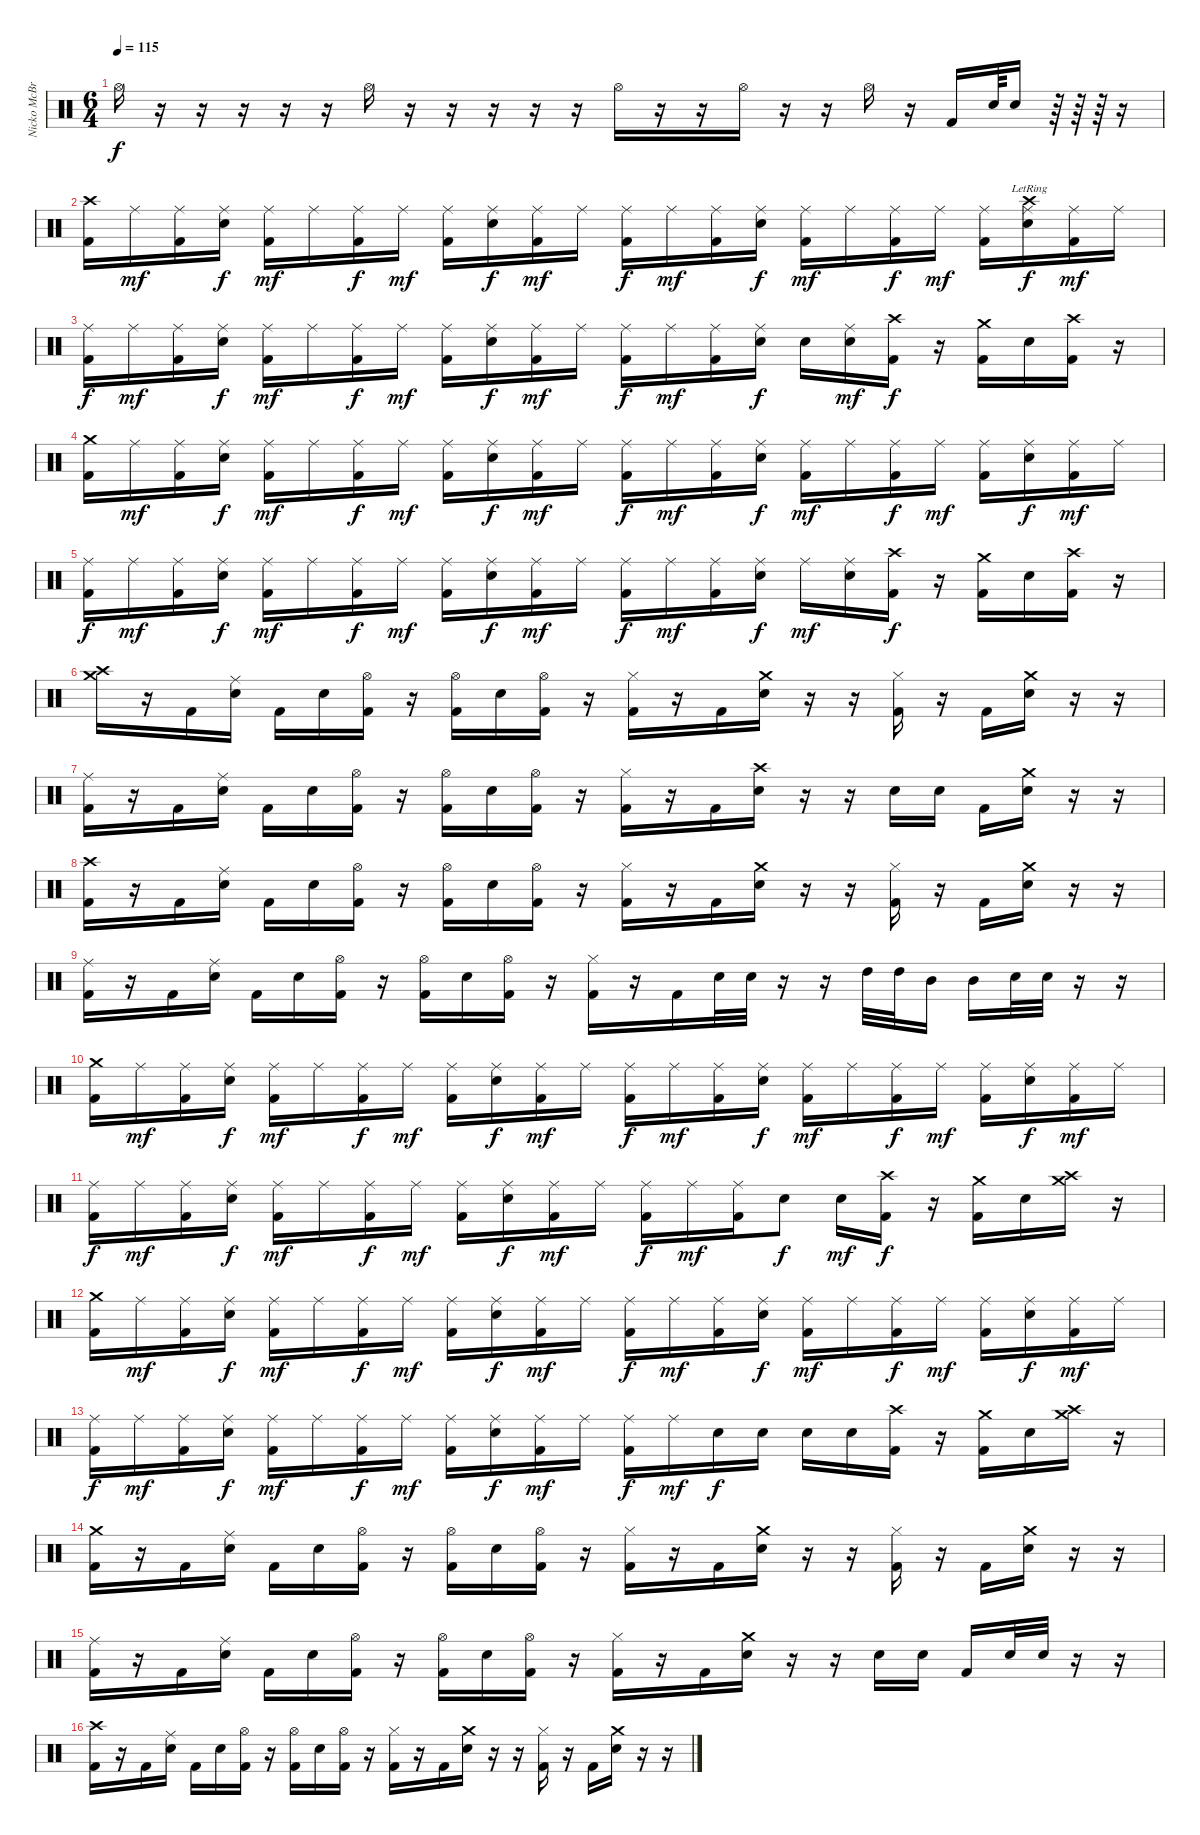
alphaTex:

\track ("Nicko McBrain" "Nicko McBr") {instrument percussion}
\staff {score}
\articulation defaults
\ts (6 4)
\tempo 115
\clef neutral
\ks c "Hi-Hat (open)".16{dy f}
r.16 r.16 r.16 r.16 r.16 "Hi-Hat (open)".16 r.16 r.16 r.16 r.16 r.16 "Hi-Hat (open)".16 r.16 r.16 "Hi-Hat (open)".16 r.16 r.16 "Hi-Hat (open)".16 r.16 "Kick (hit) 2".16 "Snare (hit) 2".64 "Snare (hit) 2".16 r.64 r.64 r.64 r.16 |
("Crash high (hit)" "Kick (hit) 2").16 "Ride (middle)".16{dy mf} ("Ride (middle)" "Kick (hit) 2").16 ("Ride (middle)" "Electric Snare (hit)").16{dy f} ("Ride (middle)" "Kick (hit) 2").16{dy mf} "Ride (middle)".16 ("Ride (middle)" "Kick (hit) 2").16{dy f} "Ride (middle)".16{dy mf} ("Ride (middle)" "Kick (hit) 2").16 ("Ride (middle)" "Electric Snare (hit)").16{dy f} ("Ride (middle)" "Kick (hit) 2").16{dy mf} "Ride (middle)".16 ("Ride (middle)" "Kick (hit) 2").16{dy f} "Ride (middle)".16{dy mf} ("Ride (middle)" "Kick (hit) 2").16 ("Ride (middle)" "Electric Snare (hit)").16{dy f} ("Ride (middle)" "Kick (hit) 2").16{dy mf} "Ride (middle)".16 ("Ride (middle)" "Kick (hit) 2").16{dy f} "Ride (middle)".16{dy mf} ("Ride (middle)" "Kick (hit) 2").16 ("Ride (middle)" "Electric Snare (hit)" "Crash high (hit)"{lr}).16{dy f} ("Ride (middle)" "Kick (hit) 2").16{dy mf} "Ride (middle)".16 |
("Ride (middle)" "Kick (hit) 2").16{dy f} "Ride (middle)".16{dy mf} ("Ride (middle)" "Kick (hit) 2").16 ("Ride (middle)" "Electric Snare (hit)").16{dy f} ("Ride (middle)" "Kick (hit) 2").16{dy mf} "Ride (middle)".16 ("Ride (middle)" "Kick (hit) 2").16{dy f} "Ride (middle)".16{dy mf} ("Ride (middle)" "Kick (hit) 2").16 ("Ride (middle)" "Electric Snare (hit)").16{dy f} ("Ride (middle)" "Kick (hit) 2").16{dy mf} "Ride (middle)".16 ("Ride (middle)" "Kick (hit) 2").16{dy f} "Ride (middle)".16{dy mf} ("Ride (middle)" "Kick (hit) 2").16 ("Ride (middle)" "Electric Snare (hit)").16{dy f} "Electric Snare (hit)".16 ("Ride (middle)" "Electric Snare (hit)").16{dy mf} ("Crash high (hit)" "Kick (hit) 2").16{dy f} r.16 ("Crash medium (hit)" "Kick (hit) 2").16 "Electric Snare (hit)".16 ("Crash high (hit)" "Kick (hit) 2").16 r.16 |
("Crash medium (hit)" "Kick (hit) 2").16 "Ride (middle)".16{dy mf} ("Ride (middle)" "Kick (hit) 2").16 ("Ride (middle)" "Electric Snare (hit)").16{dy f} ("Ride (middle)" "Kick (hit) 2").16{dy mf} "Ride (middle)".16 ("Ride (middle)" "Kick (hit) 2").16{dy f} "Ride (middle)".16{dy mf} ("Ride (middle)" "Kick (hit) 2").16 ("Ride (middle)" "Electric Snare (hit)").16{dy f} ("Ride (middle)" "Kick (hit) 2").16{dy mf} "Ride (middle)".16 ("Ride (middle)" "Kick (hit) 2").16{dy f} "Ride (middle)".16{dy mf} ("Ride (middle)" "Kick (hit) 2").16 ("Ride (middle)" "Electric Snare (hit)").16{dy f} ("Ride (middle)" "Kick (hit) 2").16{dy mf} "Ride (middle)".16 ("Ride (middle)" "Kick (hit) 2").16{dy f} "Ride (middle)".16{dy mf} ("Ride (middle)" "Kick (hit) 2").16 ("Ride (middle)" "Electric Snare (hit)").16{dy f} ("Ride (middle)" "Kick (hit) 2").16{dy mf} "Ride (middle)".16 |
("Ride (middle)" "Kick (hit) 2").16{dy f} "Ride (middle)".16{dy mf} ("Ride (middle)" "Kick (hit) 2").16 ("Ride (middle)" "Electric Snare (hit)").16{dy f} ("Ride (middle)" "Kick (hit) 2").16{dy mf} "Ride (middle)".16 ("Ride (middle)" "Kick (hit) 2").16{dy f} "Ride (middle)".16{dy mf} ("Ride (middle)" "Kick (hit) 2").16 ("Ride (middle)" "Electric Snare (hit)").16{dy f} ("Ride (middle)" "Kick (hit) 2").16{dy mf} "Ride (middle)".16 ("Ride (middle)" "Kick (hit) 2").16{dy f} "Ride (middle)".16{dy mf} ("Ride (middle)" "Kick (hit) 2").16 ("Ride (middle)" "Electric Snare (hit)").16{dy f} "Ride (middle)".16{dy mf} ("Ride (middle)" "Electric Snare (hit)").16 ("Crash high (hit)" "Kick (hit) 2").16{dy f} r.16 ("Crash medium (hit)" "Kick (hit) 2").16 "Electric Snare (hit)".16 ("Kick (hit) 2" "Crash high (hit)").16 r.16 |
("Crash high (hit)" "Crash medium (hit)").16 r.16 "Kick (hit) 2".16 ("Electric Snare (hit)" "Ride (middle)").16 "Kick (hit) 2".16 "Electric Snare (hit)".16 ("Kick (hit) 2" "Hi-Hat (open)").16 r.16 ("Hi-Hat (open)" "Kick (hit) 2").16 "Electric Snare (hit)".16 ("Hi-Hat (open)" "Kick (hit) 2").16 r.16 ("Kick (hit) 2" "Hi-Hat (closed)").16 r.16 "Kick (hit) 2".16 ("Crash medium (hit)" "Electric Snare (hit)").16 r.16 r.16 ("Hi-Hat (closed)" "Kick (hit) 2").16 r.16 "Kick (hit) 2".16 ("Crash medium (hit)" "Electric Snare (hit)").16 r.16 r.16 |
("Ride (middle)" "Kick (hit) 2").16 r.16 "Kick (hit) 2".16 ("Electric Snare (hit)" "Ride (middle)").16 "Kick (hit) 2".16 "Electric Snare (hit)".16 ("Kick (hit) 2" "Hi-Hat (open)").16 r.16 ("Hi-Hat (open)" "Kick (hit) 2").16 "Electric Snare (hit)".16 ("Hi-Hat (open)" "Kick (hit) 2").16 r.16 ("Kick (hit) 2" "Hi-Hat (closed)").16 r.16 "Kick (hit) 2".16 ("Crash high (hit)" "Electric Snare (hit)").16 r.16 r.16 "Electric Snare (hit)".16 "Electric Snare (hit)".16 "Kick (hit) 2".16 ("Crash medium (hit)" "Electric Snare (hit)").16 r.16 r.16 |
("Crash high (hit)" "Kick (hit) 2").16 r.16 "Kick (hit) 2".16 ("Electric Snare (hit)" "Ride (middle)").16 "Kick (hit) 2".16 "Electric Snare (hit)".16 ("Kick (hit) 2" "Hi-Hat (open)").16 r.16 ("Hi-Hat (open)" "Kick (hit) 2").16 "Electric Snare (hit)".16 ("Hi-Hat (open)" "Kick (hit) 2").16 r.16 ("Kick (hit) 2" "Hi-Hat (closed)").16 r.16 "Kick (hit) 2".16 ("Crash medium (hit)" "Electric Snare (hit)").16 r.16 r.16 ("Hi-Hat (closed)" "Kick (hit) 2").16 r.16 "Kick (hit) 2".16 ("Crash medium (hit)" "Electric Snare (hit)").16 r.16 r.16 |
("Ride (middle)" "Kick (hit) 2").16 r.16 "Kick (hit) 2".16 ("Electric Snare (hit)" "Ride (middle)").16 "Kick (hit) 2".16 "Electric Snare (hit)".16 ("Kick (hit) 2" "Hi-Hat (open)").16 r.16 ("Hi-Hat (open)" "Kick (hit) 2").16 "Electric Snare (hit)".16 ("Hi-Hat (open)" "Kick (hit) 2").16 r.16 ("Kick (hit) 2" "Hi-Hat (closed)").16 r.16 "Kick (hit) 2".16 "Electric Snare (hit)".32 "Electric Snare (hit)".32 r.16 r.16 "High Tom (hit)".32 "High Tom (hit)".32 "Mid Tom (hit)".16 "Mid Tom (hit)".16 "Electric Snare (hit)".32 "Electric Snare (hit)".32 r.16 r.16 |
("Crash medium (hit)" "Kick (hit) 2").16 "Ride (middle)".16{dy mf} ("Ride (middle)" "Kick (hit) 2").16 ("Ride (middle)" "Electric Snare (hit)").16{dy f} ("Ride (middle)" "Kick (hit) 2").16{dy mf} "Ride (middle)".16 ("Ride (middle)" "Kick (hit) 2").16{dy f} "Ride (middle)".16{dy mf} ("Ride (middle)" "Kick (hit) 2").16 ("Ride (middle)" "Electric Snare (hit)").16{dy f} ("Ride (middle)" "Kick (hit) 2").16{dy mf} "Ride (middle)".16 ("Ride (middle)" "Kick (hit) 2").16{dy f} "Ride (middle)".16{dy mf} ("Ride (middle)" "Kick (hit) 2").16 ("Ride (middle)" "Electric Snare (hit)").16{dy f} ("Ride (middle)" "Kick (hit) 2").16{dy mf} "Ride (middle)".16 ("Ride (middle)" "Kick (hit) 2").16{dy f} "Ride (middle)".16{dy mf} ("Ride (middle)" "Kick (hit) 2").16 ("Ride (middle)" "Electric Snare (hit)").16{dy f} ("Ride (middle)" "Kick (hit) 2").16{dy mf} "Ride (middle)".16 |
("Ride (middle)" "Kick (hit) 2").16{dy f} "Ride (middle)".16{dy mf} ("Ride (middle)" "Kick (hit) 2").16 ("Ride (middle)" "Electric Snare (hit)").16{dy f} ("Ride (middle)" "Kick (hit) 2").16{dy mf} "Ride (middle)".16 ("Ride (middle)" "Kick (hit) 2").16{dy f} "Ride (middle)".16{dy mf} ("Ride (middle)" "Kick (hit) 2").16 ("Ride (middle)" "Electric Snare (hit)").16{dy f} ("Ride (middle)" "Kick (hit) 2").16{dy mf} "Ride (middle)".16 ("Ride (middle)" "Kick (hit) 2").16{dy f} "Ride (middle)".16{dy mf} ("Ride (middle)" "Kick (hit) 2").16 "Electric Snare (hit)".8{dy f} "Electric Snare (hit)".16{dy mf} ("Crash high (hit)" "Kick (hit) 2").16{dy f} r.16 ("Crash medium (hit)" "Kick (hit) 2").16 "Electric Snare (hit)".16 ("Crash high (hit)" "Crash medium (hit)").16 r.16 |
("Crash medium (hit)" "Kick (hit) 2").16 "Ride (middle)".16{dy mf} ("Ride (middle)" "Kick (hit) 2").16 ("Ride (middle)" "Electric Snare (hit)").16{dy f} ("Ride (middle)" "Kick (hit) 2").16{dy mf} "Ride (middle)".16 ("Ride (middle)" "Kick (hit) 2").16{dy f} "Ride (middle)".16{dy mf} ("Ride (middle)" "Kick (hit) 2").16 ("Ride (middle)" "Electric Snare (hit)").16{dy f} ("Ride (middle)" "Kick (hit) 2").16{dy mf} "Ride (middle)".16 ("Ride (middle)" "Kick (hit) 2").16{dy f} "Ride (middle)".16{dy mf} ("Ride (middle)" "Kick (hit) 2").16 ("Ride (middle)" "Electric Snare (hit)").16{dy f} ("Ride (middle)" "Kick (hit) 2").16{dy mf} "Ride (middle)".16 ("Ride (middle)" "Kick (hit) 2").16{dy f} "Ride (middle)".16{dy mf} ("Ride (middle)" "Kick (hit) 2").16 ("Ride (middle)" "Electric Snare (hit)").16{dy f} ("Ride (middle)" "Kick (hit) 2").16{dy mf} "Ride (middle)".16 |
("Ride (middle)" "Kick (hit) 2").16{dy f} "Ride (middle)".16{dy mf} ("Ride (middle)" "Kick (hit) 2").16 ("Ride (middle)" "Electric Snare (hit)").16{dy f} ("Ride (middle)" "Kick (hit) 2").16{dy mf} "Ride (middle)".16 ("Ride (middle)" "Kick (hit) 2").16{dy f} "Ride (middle)".16{dy mf} ("Ride (middle)" "Kick (hit) 2").16 ("Ride (middle)" "Electric Snare (hit)").16{dy f} ("Ride (middle)" "Kick (hit) 2").16{dy mf} "Ride (middle)".16 ("Ride (middle)" "Kick (hit) 2").16{dy f} "Ride (middle)".16{dy mf} "Electric Snare (hit)".16{dy f} "Electric Snare (hit)".16 "Electric Snare (hit)".16 "Electric Snare (hit)".16 ("Crash high (hit)" "Kick (hit) 2").16 r.16 ("Crash medium (hit)" "Kick (hit) 2").16 "Electric Snare (hit)".16 ("Crash high (hit)" "Crash medium (hit)").16 r.16 |
("Crash medium (hit)" "Kick (hit) 2").16 r.16 "Kick (hit) 2".16 ("Electric Snare (hit)" "Ride (middle)").16 "Kick (hit) 2".16 "Electric Snare (hit)".16 ("Kick (hit) 2" "Hi-Hat (open)").16 r.16 ("Hi-Hat (open)" "Kick (hit) 2").16 "Electric Snare (hit)".16 ("Hi-Hat (open)" "Kick (hit) 2").16 r.16 ("Kick (hit) 2" "Hi-Hat (closed)").16 r.16 "Kick (hit) 2".16 ("Crash medium (hit)" "Electric Snare (hit)").16 r.16 r.16 ("Hi-Hat (closed)" "Kick (hit) 2").16 r.16 "Kick (hit) 2".16 ("Crash medium (hit)" "Electric Snare (hit)").16 r.16 r.16 |
("Ride (middle)" "Kick (hit) 2").16 r.16 "Kick (hit) 2".16 ("Electric Snare (hit)" "Ride (middle)").16 "Kick (hit) 2".16 "Electric Snare (hit)".16 ("Kick (hit) 2" "Hi-Hat (open)").16 r.16 ("Hi-Hat (open)" "Kick (hit) 2").16 "Electric Snare (hit)".16 ("Hi-Hat (open)" "Kick (hit) 2").16 r.16 ("Kick (hit) 2" "Hi-Hat (closed)").16 r.16 "Kick (hit) 2".16 ("Crash medium (hit)" "Electric Snare (hit)").16 r.16 r.16 "Electric Snare (hit)".16 "Electric Snare (hit)".16 "Kick (hit) 2".16 "Electric Snare (hit)".32 "Electric Snare (hit)".32 r.16 r.16 |
("Crash high (hit)" "Kick (hit) 2").16 r.16 "Kick (hit) 2".16 ("Electric Snare (hit)" "Ride (middle)").16 "Kick (hit) 2".16 "Electric Snare (hit)".16 ("Kick (hit) 2" "Hi-Hat (open)").16 r.16 ("Hi-Hat (open)" "Kick (hit) 2").16 "Electric Snare (hit)".16 ("Hi-Hat (open)" "Kick (hit) 2").16 r.16 ("Kick (hit) 2" "Hi-Hat (closed)").16 r.16 "Kick (hit) 2".16 ("Crash medium (hit)" "Electric Snare (hit)").16 r.16 r.16 ("Hi-Hat (closed)" "Kick (hit) 2").16 r.16 "Kick (hit) 2".16 ("Crash medium (hit)" "Electric Snare (hit)").16 r.16 r.16
